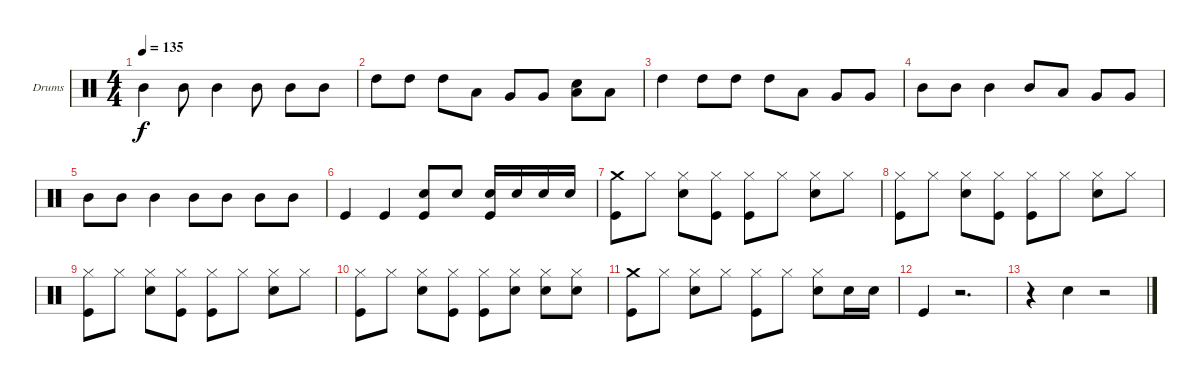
\bracketExtendMode groupsimilarinstruments
\firstSystemTrackNameOrientation horizontal
\otherSystemsTrackNameOrientation horizontal
\track ("Drumkit" "Drums") {instrument percussion}
\staff {score}
\articulation defaults
\ts (4 4)
\tempo 135
\clef neutral
\ks c "Mid Tom (hit)".4{dy f} "Mid Tom (hit)".8 "Mid Tom (hit)".4 "Mid Tom (hit)".8 "Mid Tom (hit)".8 "Mid Tom (hit)".8
|
"High Tom (hit)".8 "High Tom (hit)".8 "High Tom (hit)".8 "Low Tom (hit)".8 "Very Low Tom (hit)".8 "Very Low Tom (hit)".8 ("Low Tom (hit)" "Snare (hit) 2").8 "Low Tom (hit)".8 |
"High Tom (hit)".4 "High Tom (hit)".8 "High Tom (hit)".8 "High Tom (hit)".8 "Low Tom (hit)".8 "Very Low Tom (hit)".8 "Very Low Tom (hit)".8 |
"Mid Tom (hit)".8 "Mid Tom (hit)".8 "Mid Tom (hit)".4 "Mid Tom (hit)".8 "Low Tom (hit)".8 "Very Low Tom (hit)".8 "Very Low Tom (hit)".8 |
"Mid Tom (hit)".8 "Mid Tom (hit)".8 "Mid Tom (hit)".4 "Mid Tom (hit)".8 "Mid Tom (hit)".8 "Mid Tom (hit)".8 "Mid Tom (hit)".8 |
"Kick (hit)".4 "Kick (hit)".4 ("Snare (hit) 2" "Kick (hit)").8 "Snare (hit) 2".8 ("Snare (hit) 2" "Kick (hit)").16 "Snare (hit) 2".16 "Snare (hit) 2".16 "Snare (hit) 2".16 |
("Crash medium (hit)" "Kick (hit)").8 "Hi-Hat (closed)".8 ("Hi-Hat (closed)" "Snare (hit) 2").8 ("Hi-Hat (closed)" "Kick (hit)").8 ("Hi-Hat (closed)" "Kick (hit)").8 "Hi-Hat (closed)".8 ("Hi-Hat (closed)" "Snare (hit) 2").8 "Hi-Hat (closed)".8 |
("Hi-Hat (closed)" "Kick (hit)").8 "Hi-Hat (closed)".8 ("Hi-Hat (closed)" "Snare (hit) 2").8 ("Hi-Hat (closed)" "Kick (hit)").8 ("Hi-Hat (closed)" "Kick (hit)").8 "Hi-Hat (closed)".8 ("Hi-Hat (closed)" "Snare (hit) 2").8 "Hi-Hat (closed)".8 |
("Hi-Hat (closed)" "Kick (hit)").8 "Hi-Hat (closed)".8 ("Hi-Hat (closed)" "Snare (hit) 2").8 ("Hi-Hat (closed)" "Kick (hit)").8 ("Hi-Hat (closed)" "Kick (hit)").8 "Hi-Hat (closed)".8 ("Hi-Hat (closed)" "Snare (hit) 2").8 "Hi-Hat (closed)".8 |
("Hi-Hat (closed)" "Kick (hit)").8 "Hi-Hat (closed)".8 ("Hi-Hat (closed)" "Snare (hit) 2").8 ("Hi-Hat (closed)" "Kick (hit)").8 ("Hi-Hat (closed)" "Kick (hit)").8 ("Hi-Hat (closed)" "Snare (hit) 2").8 ("Hi-Hat (closed)" "Snare (hit) 2").8 ("Hi-Hat (closed)" "Snare (hit) 2").8 |
("Crash medium (hit)" "Kick (hit)").8 "Hi-Hat (closed)".8 ("Hi-Hat (closed)" "Snare (hit) 2").8 "Hi-Hat (closed)".8 ("Hi-Hat (closed)" "Kick (hit)").8 "Hi-Hat (closed)".8 ("Hi-Hat (closed)" "Snare (hit) 2").8 "Snare (hit) 2".16 "Snare (hit) 2".16 |
"Kick (hit)".4 r.2{d} |
r.4 "Snare (hit) 2".4 r.2
